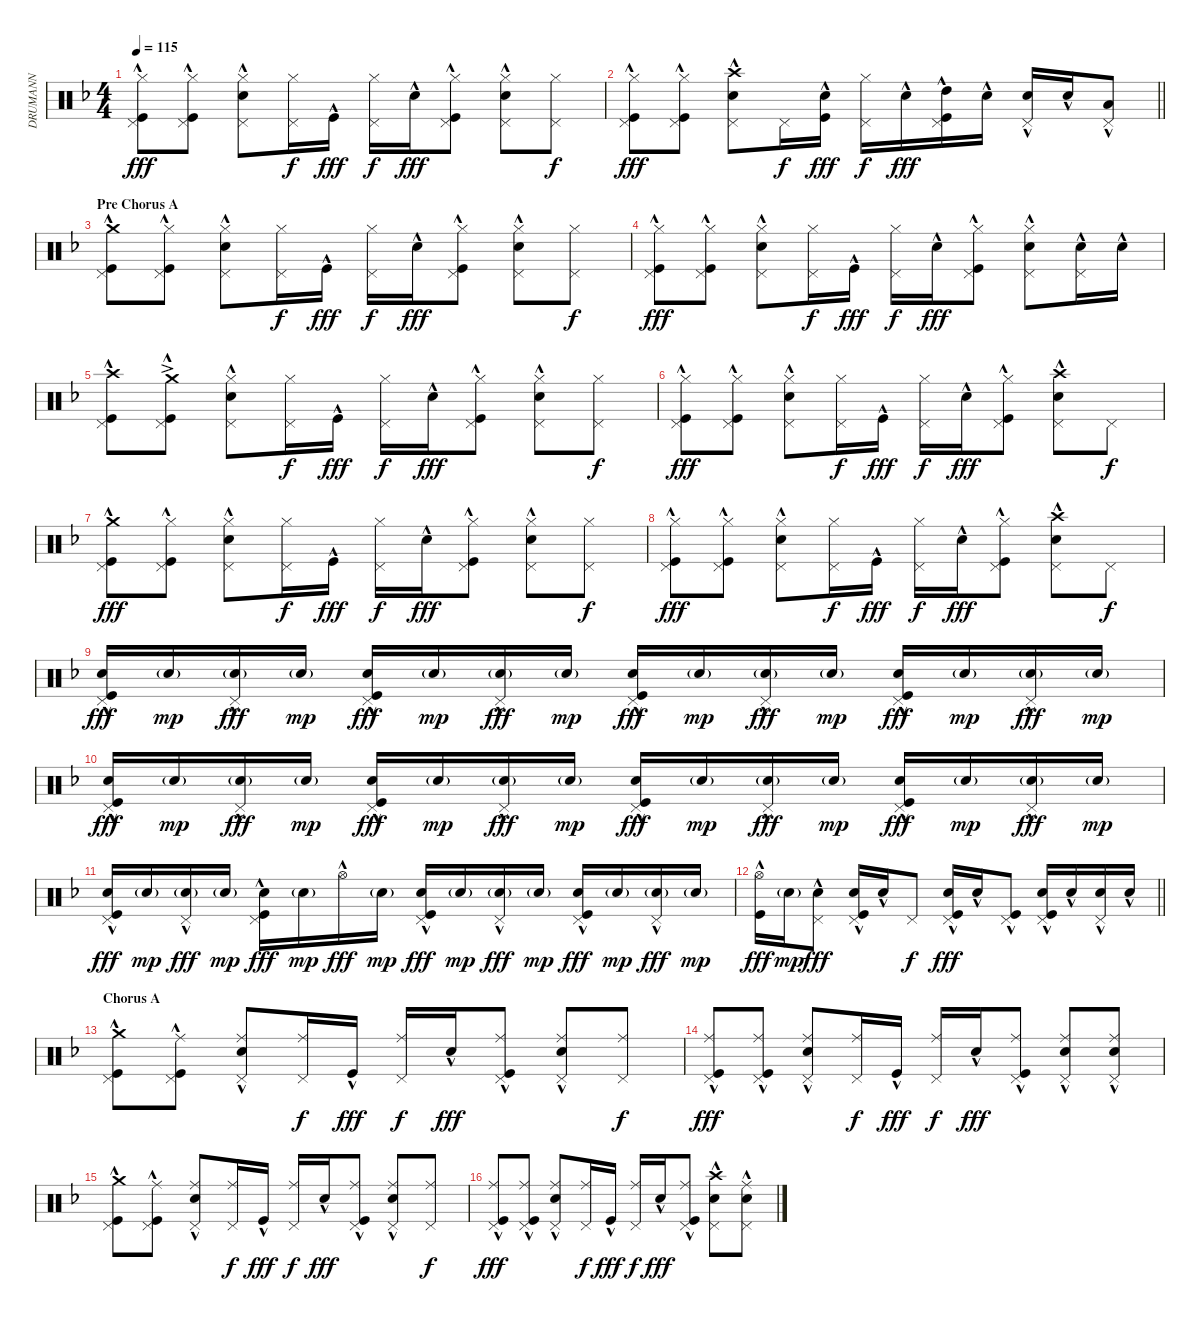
\track ("DRUMANN" "DRUMANN") {instrument percussion}
\staff {score}
\articulation defaults
\ts (4 4)
\tempo 115
\clef neutral
\ks f
("Hi-Hat (closed)" "Pedal Hi-Hat (hit)" "Kick (hit)"{hac}).8{dy fff} ("Hi-Hat (closed)" "Pedal Hi-Hat (hit)" "Kick (hit)"{hac}).8 ("Hi-Hat (closed)" "Snare (hit) 2"{hac} "Pedal Hi-Hat (hit)").8 ("Hi-Hat (closed)" "Pedal Hi-Hat (hit)").16{dy f} "Kick (hit)"{hac}.16{dy fff} ("Hi-Hat (closed)" "Pedal Hi-Hat (hit)").16{dy f} "Snare (hit) 2"{hac}.16{dy fff} ("Hi-Hat (closed)" "Pedal Hi-Hat (hit)" "Kick (hit)"{hac}).8 ("Hi-Hat (closed)" "Snare (hit) 2"{hac} "Pedal Hi-Hat (hit)").8 ("Hi-Hat (closed)" "Pedal Hi-Hat (hit)").8{dy f} |
\barLineRight lightlight
("Hi-Hat (closed)" "Pedal Hi-Hat (hit)" "Kick (hit)"{hac}).8{dy fff} ("Hi-Hat (closed)" "Pedal Hi-Hat (hit)" "Kick (hit)"{hac}).8 ("Crash high (hit)"{hac} "Snare (hit) 2"{hac} "Pedal Hi-Hat (hit)").8 "Pedal Hi-Hat (hit)".16{dy f} ("Snare (hit) 2"{hac} "Kick (hit)"{hac}).16{dy fff} ("Hi-Hat (closed)" "Pedal Hi-Hat (hit)").16{dy f} "Snare (hit) 2"{hac}.16{dy fff} ("High Tom (hit)" "Pedal Hi-Hat (hit)" "Kick (hit)"{hac}).16 "Snare (hit) 2"{hac}.16 ("Snare (hit) 2"{hac} "Pedal Hi-Hat (hit)").16 "Snare (hit) 2"{hac}.16 ("Low Tom (hit)"{hac} "Pedal Hi-Hat (hit)").8 |
\section ("" "Pre Chorus A")
("Crash medium (hit)"{hac} "Pedal Hi-Hat (hit)" "Kick (hit)"{hac}).8 ("Hi-Hat (closed)" "Pedal Hi-Hat (hit)" "Kick (hit)"{hac}).8 ("Hi-Hat (closed)" "Snare (hit) 2"{hac} "Pedal Hi-Hat (hit)").8 ("Hi-Hat (closed)" "Pedal Hi-Hat (hit)").16{dy f} "Kick (hit)"{hac}.16{dy fff} ("Hi-Hat (closed)" "Pedal Hi-Hat (hit)").16{dy f} "Snare (hit) 2"{hac}.16{dy fff} ("Hi-Hat (closed)" "Pedal Hi-Hat (hit)" "Kick (hit)"{hac}).8 ("Hi-Hat (closed)" "Snare (hit) 2"{hac} "Pedal Hi-Hat (hit)").8 ("Hi-Hat (closed)" "Pedal Hi-Hat (hit)").8{dy f} |
("Hi-Hat (closed)" "Pedal Hi-Hat (hit)" "Kick (hit)"{hac}).8{dy fff} ("Hi-Hat (closed)" "Pedal Hi-Hat (hit)" "Kick (hit)"{hac}).8 ("Hi-Hat (closed)" "Snare (hit) 2"{hac} "Pedal Hi-Hat (hit)").8 ("Hi-Hat (closed)" "Pedal Hi-Hat (hit)").16{dy f} "Kick (hit)"{hac}.16{dy fff} ("Hi-Hat (closed)" "Pedal Hi-Hat (hit)").16{dy f} "Snare (hit) 2"{hac}.16{dy fff} ("Hi-Hat (closed)" "Pedal Hi-Hat (hit)" "Kick (hit)"{hac}).8 ("Hi-Hat (closed)" "Snare (hit) 2"{hac} "Pedal Hi-Hat (hit)").8 ("Snare (hit) 2"{hac} "Pedal Hi-Hat (hit)").16 "Snare (hit) 2"{hac}.16 |
("Crash high (hit)"{hac} "Pedal Hi-Hat (hit)" "Kick (hit)"{hac}).8 ("Crash medium (hit)"{ac} "Pedal Hi-Hat (hit)" "Kick (hit)"{hac}).8 ("Hi-Hat (closed)" "Snare (hit) 2"{hac} "Pedal Hi-Hat (hit)").8 ("Hi-Hat (closed)" "Pedal Hi-Hat (hit)").16{dy f} "Kick (hit)"{hac}.16{dy fff} ("Hi-Hat (closed)" "Pedal Hi-Hat (hit)").16{dy f} "Snare (hit) 2"{hac}.16{dy fff} ("Hi-Hat (closed)" "Pedal Hi-Hat (hit)" "Kick (hit)"{hac}).8 ("Hi-Hat (closed)" "Snare (hit) 2"{hac} "Pedal Hi-Hat (hit)").8 ("Hi-Hat (closed)" "Pedal Hi-Hat (hit)").8{dy f} |
("Hi-Hat (closed)" "Pedal Hi-Hat (hit)" "Kick (hit)"{hac}).8{dy fff} ("Hi-Hat (closed)" "Pedal Hi-Hat (hit)" "Kick (hit)"{hac}).8 ("Hi-Hat (closed)" "Snare (hit) 2"{hac} "Pedal Hi-Hat (hit)").8 ("Hi-Hat (closed)" "Pedal Hi-Hat (hit)").16{dy f} "Kick (hit)"{hac}.16{dy fff} ("Hi-Hat (closed)" "Pedal Hi-Hat (hit)").16{dy f} "Snare (hit) 2"{hac}.16{dy fff} ("Hi-Hat (closed)" "Pedal Hi-Hat (hit)" "Kick (hit)"{hac}).8 ("Crash high (hit)"{hac} "Snare (hit) 2"{hac} "Pedal Hi-Hat (hit)").8 "Pedal Hi-Hat (hit)".8{dy f} |
("Crash medium (hit)"{hac} "Pedal Hi-Hat (hit)" "Kick (hit)"{hac}).8{dy fff} ("Hi-Hat (closed)" "Pedal Hi-Hat (hit)" "Kick (hit)"{hac}).8 ("Hi-Hat (closed)" "Snare (hit) 2"{hac} "Pedal Hi-Hat (hit)").8 ("Hi-Hat (closed)" "Pedal Hi-Hat (hit)").16{dy f} "Kick (hit)"{hac}.16{dy fff} ("Hi-Hat (closed)" "Pedal Hi-Hat (hit)").16{dy f} "Snare (hit) 2"{hac}.16{dy fff} ("Hi-Hat (closed)" "Pedal Hi-Hat (hit)" "Kick (hit)"{hac}).8 ("Hi-Hat (closed)" "Snare (hit) 2"{hac} "Pedal Hi-Hat (hit)").8 ("Hi-Hat (closed)" "Pedal Hi-Hat (hit)").8{dy f} |
("Hi-Hat (closed)" "Pedal Hi-Hat (hit)" "Kick (hit)"{hac}).8{dy fff} ("Hi-Hat (closed)" "Pedal Hi-Hat (hit)" "Kick (hit)"{hac}).8 ("Hi-Hat (closed)" "Snare (hit) 2"{hac} "Pedal Hi-Hat (hit)").8 ("Hi-Hat (closed)" "Pedal Hi-Hat (hit)").16{dy f} "Kick (hit)"{hac}.16{dy fff} ("Hi-Hat (closed)" "Pedal Hi-Hat (hit)").16{dy f} "Snare (hit) 2"{hac}.16{dy fff} ("Hi-Hat (closed)" "Pedal Hi-Hat (hit)" "Kick (hit)"{hac}).8 ("Crash high (hit)"{hac} "Snare (hit) 2"{hac} "Pedal Hi-Hat (hit)").8 "Pedal Hi-Hat (hit)".8{dy f} |
("Snare (hit) 2" "Pedal Hi-Hat (hit)"{hac} "Kick (hit)"{hac}).16{dy fff} "Snare (hit) 2"{g}.16{dy mp} ("Snare (hit) 2"{g} "Pedal Hi-Hat (hit)"{hac}).16{dy fff} "Snare (hit) 2"{g}.16{dy mp} ("Snare (hit) 2" "Pedal Hi-Hat (hit)"{hac} "Kick (hit)"{hac}).16{dy fff} "Snare (hit) 2"{g}.16{dy mp} ("Snare (hit) 2"{g} "Pedal Hi-Hat (hit)"{hac}).16{dy fff} "Snare (hit) 2"{g}.16{dy mp} ("Snare (hit) 2" "Pedal Hi-Hat (hit)"{hac} "Kick (hit)"{hac}).16{dy fff} "Snare (hit) 2"{g}.16{dy mp} ("Snare (hit) 2"{g} "Pedal Hi-Hat (hit)"{hac}).16{dy fff} "Snare (hit) 2"{g}.16{dy mp} ("Snare (hit) 2" "Pedal Hi-Hat (hit)"{hac} "Kick (hit)"{hac}).16{dy fff} "Snare (hit) 2"{g}.16{dy mp} ("Snare (hit) 2"{g} "Pedal Hi-Hat (hit)"{hac}).16{dy fff} "Snare (hit) 2"{g}.16{dy mp} |
("Snare (hit) 2" "Pedal Hi-Hat (hit)"{hac} "Kick (hit)"{hac}).16{dy fff} "Snare (hit) 2"{g}.16{dy mp} ("Snare (hit) 2"{g} "Pedal Hi-Hat (hit)"{hac}).16{dy fff} "Snare (hit) 2"{g}.16{dy mp} ("Snare (hit) 2" "Pedal Hi-Hat (hit)"{hac} "Kick (hit)"{hac}).16{dy fff} "Snare (hit) 2"{g}.16{dy mp} ("Snare (hit) 2"{g} "Pedal Hi-Hat (hit)"{hac}).16{dy fff} "Snare (hit) 2"{g}.16{dy mp} ("Snare (hit) 2" "Pedal Hi-Hat (hit)"{hac} "Kick (hit)"{hac}).16{dy fff} "Snare (hit) 2"{g}.16{dy mp} ("Snare (hit) 2"{g} "Pedal Hi-Hat (hit)"{hac}).16{dy fff} "Snare (hit) 2"{g}.16{dy mp} ("Snare (hit) 2" "Pedal Hi-Hat (hit)"{hac} "Kick (hit)"{hac}).16{dy fff} "Snare (hit) 2"{g}.16{dy mp} ("Snare (hit) 2"{g} "Pedal Hi-Hat (hit)"{hac}).16{dy fff} "Snare (hit) 2"{g}.16{dy mp} |
("Snare (hit) 2" "Pedal Hi-Hat (hit)"{hac} "Kick (hit)"{hac}).16{dy fff} "Snare (hit) 2"{g}.16{dy mp} ("Snare (hit) 2"{g} "Pedal Hi-Hat (hit)"{hac}).16{dy fff} "Snare (hit) 2"{g}.16{dy mp} ("Snare (hit) 2" "Pedal Hi-Hat (hit)"{hac} "Kick (hit)"{hac}).16{dy fff} "Snare (hit) 2"{g}.16{dy mp} "Hi-Hat (open)"{hac}.16{dy fff} "Snare (hit) 2"{g}.16{dy mp} ("Snare (hit) 2" "Pedal Hi-Hat (hit)"{hac} "Kick (hit)"{hac}).16{dy fff} "Snare (hit) 2"{g}.16{dy mp} ("Snare (hit) 2"{g} "Pedal Hi-Hat (hit)"{hac}).16{dy fff} "Snare (hit) 2"{g}.16{dy mp} ("Snare (hit) 2" "Pedal Hi-Hat (hit)"{hac} "Kick (hit)"{hac}).16{dy fff} "Snare (hit) 2"{g}.16{dy mp} ("Snare (hit) 2"{g} "Pedal Hi-Hat (hit)"{hac}).16{dy fff} "Snare (hit) 2"{g}.16{dy mp} |
\barLineRight lightlight
("Hi-Hat (open)"{hac} "Kick (hit)"{hac}).16{dy fff} "Snare (hit) 2"{g}.16{dy mp} ("Snare (hit) 2"{hac} "Pedal Hi-Hat (hit)"{hac}).8{dy fff} ("Snare (hit) 2"{hac} "Pedal Hi-Hat (hit)"{hac} "Kick (hit)"{hac}).16 "Snare (hit) 2"{hac}.16 "Pedal Hi-Hat (hit)".8{dy f} ("Snare (hit) 2" "Pedal Hi-Hat (hit)"{hac} "Kick (hit)"{hac}).16{dy fff} "Snare (hit) 2"{hac}.16 ("Pedal Hi-Hat (hit)"{hac} "Kick (hit)"{hac}).8 ("Snare (hit) 2"{hac} "Pedal Hi-Hat (hit)"{hac} "Kick (hit)"{hac}).16 "Snare (hit) 2"{hac}.16 ("Snare (hit) 2"{hac} "Pedal Hi-Hat (hit)"{hac}).16 "Snare (hit) 2"{hac}.16 |
\section ("" "Chorus A")
("Crash medium (hit)"{hac} "Pedal Hi-Hat (hit)" "Kick (hit)"{hac}).8 ("Ride (middle)" "Pedal Hi-Hat (hit)" "Kick (hit)"{hac}).8 ("Ride (middle)" "Snare (hit) 2"{hac} "Pedal Hi-Hat (hit)").8 ("Ride (middle)" "Pedal Hi-Hat (hit)").16{dy f} "Kick (hit)"{hac}.16{dy fff} ("Ride (middle)" "Pedal Hi-Hat (hit)").16{dy f} "Snare (hit) 2"{hac}.16{dy fff} ("Ride (middle)" "Pedal Hi-Hat (hit)" "Kick (hit)"{hac}).8 ("Ride (middle)" "Snare (hit) 2"{hac} "Pedal Hi-Hat (hit)").8 ("Ride (middle)" "Pedal Hi-Hat (hit)").8{dy f} |
("Ride (middle)" "Pedal Hi-Hat (hit)" "Kick (hit)"{hac}).8{dy fff} ("Ride (middle)" "Pedal Hi-Hat (hit)" "Kick (hit)"{hac}).8 ("Ride (middle)" "Snare (hit) 2"{hac} "Pedal Hi-Hat (hit)").8 ("Ride (middle)" "Pedal Hi-Hat (hit)").16{dy f} "Kick (hit)"{hac}.16{dy fff} ("Ride (middle)" "Pedal Hi-Hat (hit)").16{dy f} "Snare (hit) 2"{hac}.16{dy fff} ("Ride (middle)" "Pedal Hi-Hat (hit)" "Kick (hit)"{hac}).8 ("Ride (middle)" "Snare (hit) 2"{hac} "Pedal Hi-Hat (hit)").8 ("Ride (middle)" "Snare (hit) 2"{hac} "Pedal Hi-Hat (hit)").8 |
("Crash medium (hit)"{hac} "Pedal Hi-Hat (hit)" "Kick (hit)"{hac}).8 ("Ride (middle)" "Pedal Hi-Hat (hit)" "Kick (hit)"{hac}).8 ("Ride (middle)" "Snare (hit) 2"{hac} "Pedal Hi-Hat (hit)").8 ("Ride (middle)" "Pedal Hi-Hat (hit)").16{dy f} "Kick (hit)"{hac}.16{dy fff} ("Ride (middle)" "Pedal Hi-Hat (hit)").16{dy f} "Snare (hit) 2"{hac}.16{dy fff} ("Ride (middle)" "Pedal Hi-Hat (hit)" "Kick (hit)"{hac}).8 ("Ride (middle)" "Snare (hit) 2"{hac} "Pedal Hi-Hat (hit)").8 ("Ride (middle)" "Pedal Hi-Hat (hit)").8{dy f} |
("Ride (middle)" "Pedal Hi-Hat (hit)" "Kick (hit)"{hac}).8{dy fff} ("Ride (middle)" "Pedal Hi-Hat (hit)" "Kick (hit)"{hac}).8 ("Ride (middle)" "Snare (hit) 2"{hac} "Pedal Hi-Hat (hit)").8 ("Ride (middle)" "Pedal Hi-Hat (hit)").16{dy f} "Kick (hit)"{hac}.16{dy fff} ("Ride (middle)" "Pedal Hi-Hat (hit)").16{dy f} "Snare (hit) 2"{hac}.16{dy fff} ("Ride (middle)" "Pedal Hi-Hat (hit)" "Kick (hit)"{hac}).8 ("Crash high (hit)"{hac} "Snare (hit) 2"{hac} "Pedal Hi-Hat (hit)").8 ("Ride (middle)" "Snare (hit) 2"{hac} "Pedal Hi-Hat (hit)").8
